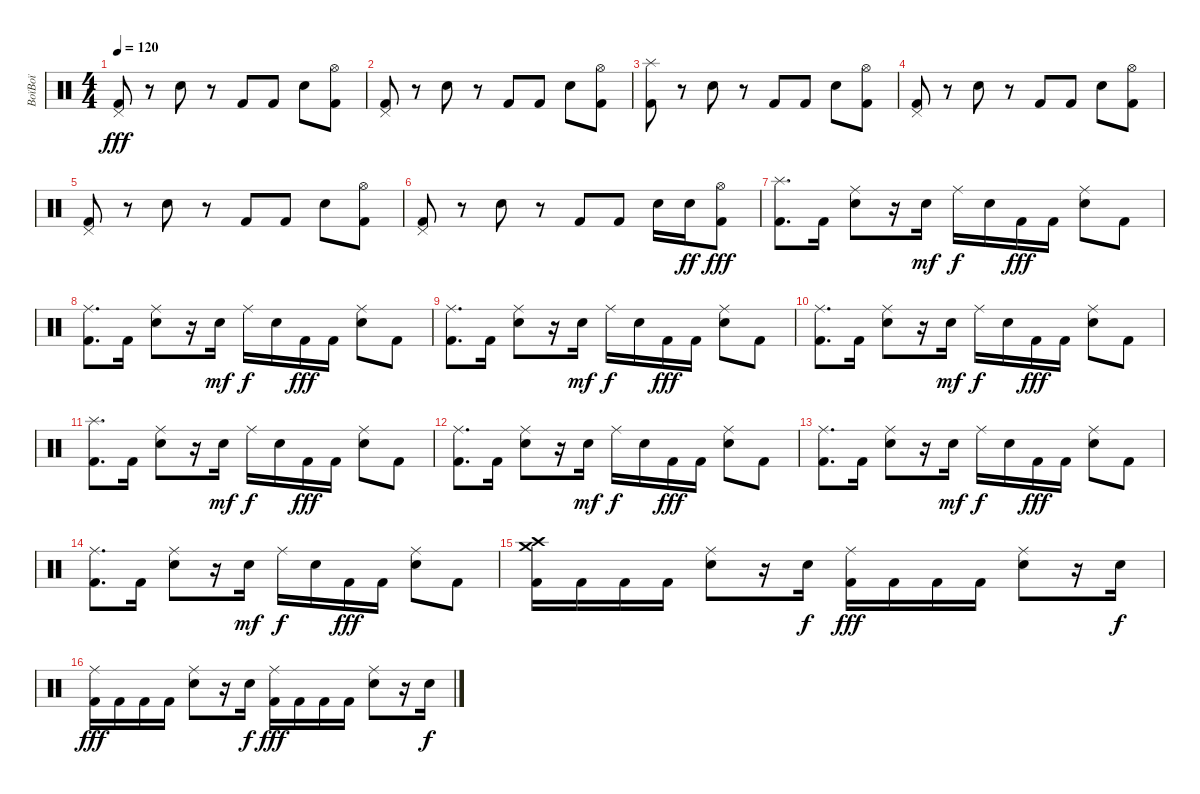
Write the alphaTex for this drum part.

\track ("BoïBoï" "BoïBoï") {instrument percussion}
\staff {score}
\articulation defaults
\ts (4 4)
\tempo 120
\clef neutral
\ks c
("Pedal Hi-Hat (hit)" "Kick (hit) 2").8{dy fff} r.8 "Electric Snare (hit)".8 r.8 "Kick (hit) 2".8 "Kick (hit) 2".8 "Electric Snare (hit)".8 ("Hi-Hat (open)" "Kick (hit) 2").8 |
("Pedal Hi-Hat (hit)" "Kick (hit) 2").8 r.8 "Electric Snare (hit)".8 r.8 "Kick (hit) 2".8 "Kick (hit) 2".8 "Electric Snare (hit)".8 ("Hi-Hat (open)" "Kick (hit) 2").8 |
("Splash (hit)" "Kick (hit) 2").8 r.8 "Electric Snare (hit)".8 r.8 "Kick (hit) 2".8 "Kick (hit) 2".8 "Electric Snare (hit)".8 ("Hi-Hat (open)" "Kick (hit) 2").8 |
("Pedal Hi-Hat (hit)" "Kick (hit) 2").8 r.8 "Electric Snare (hit)".8 r.8 "Kick (hit) 2".8 "Kick (hit) 2".8 "Electric Snare (hit)".8 ("Hi-Hat (open)" "Kick (hit) 2").8 |
("Pedal Hi-Hat (hit)" "Kick (hit) 2").8 r.8 "Electric Snare (hit)".8 r.8 "Kick (hit) 2".8 "Kick (hit) 2".8 "Electric Snare (hit)".8 ("Hi-Hat (open)" "Kick (hit) 2").8 |
("Pedal Hi-Hat (hit)" "Kick (hit) 2").8 r.8 "Electric Snare (hit)".8 r.8 "Kick (hit) 2".8 "Kick (hit) 2".8 "Electric Snare (hit)".16 "Electric Snare (hit)".16{dy ff} ("Hi-Hat (open)" "Kick (hit) 2").8{dy fff} |
("Splash (hit)" "Kick (hit) 2").8{d} "Kick (hit) 2".16 ("Ride (middle)" "Electric Snare (hit)").8 r.16 "Electric Snare (hit)".16{dy mf} "Ride (middle)".16{dy f} "Electric Snare (hit)".16 "Kick (hit) 2".16{dy fff} "Kick (hit) 2".16 ("Ride (middle)" "Electric Snare (hit)").8 "Kick (hit) 2".8 |
("Ride (middle)" "Kick (hit) 2").8{d} "Kick (hit) 2".16 ("Ride (middle)" "Electric Snare (hit)").8 r.16 "Electric Snare (hit)".16{dy mf} "Ride (middle)".16{dy f} "Electric Snare (hit)".16 "Kick (hit) 2".16{dy fff} "Kick (hit) 2".16 ("Ride (middle)" "Electric Snare (hit)").8 "Kick (hit) 2".8 |
("Ride (middle)" "Kick (hit) 2").8{d} "Kick (hit) 2".16 ("Ride (middle)" "Electric Snare (hit)").8 r.16 "Electric Snare (hit)".16{dy mf} "Ride (middle)".16{dy f} "Electric Snare (hit)".16 "Kick (hit) 2".16{dy fff} "Kick (hit) 2".16 ("Ride (middle)" "Electric Snare (hit)").8 "Kick (hit) 2".8 |
("Ride (middle)" "Kick (hit) 2").8{d} "Kick (hit) 2".16 ("Ride (middle)" "Electric Snare (hit)").8 r.16 "Electric Snare (hit)".16{dy mf} "Ride (middle)".16{dy f} "Electric Snare (hit)".16 "Kick (hit) 2".16{dy fff} "Kick (hit) 2".16 ("Ride (middle)" "Electric Snare (hit)").8 "Kick (hit) 2".8 |
("Splash (hit)" "Kick (hit) 2").8{d} "Kick (hit) 2".16 ("Ride (middle)" "Electric Snare (hit)").8 r.16 "Electric Snare (hit)".16{dy mf} "Ride (middle)".16{dy f} "Electric Snare (hit)".16 "Kick (hit) 2".16{dy fff} "Kick (hit) 2".16 ("Ride (middle)" "Electric Snare (hit)").8 "Kick (hit) 2".8 |
("Ride (middle)" "Kick (hit) 2").8{d} "Kick (hit) 2".16 ("Ride (middle)" "Electric Snare (hit)").8 r.16 "Electric Snare (hit)".16{dy mf} "Ride (middle)".16{dy f} "Electric Snare (hit)".16 "Kick (hit) 2".16{dy fff} "Kick (hit) 2".16 ("Ride (middle)" "Electric Snare (hit)").8 "Kick (hit) 2".8 |
("Ride (middle)" "Kick (hit) 2").8{d} "Kick (hit) 2".16 ("Ride (middle)" "Electric Snare (hit)").8 r.16 "Electric Snare (hit)".16{dy mf} "Ride (middle)".16{dy f} "Electric Snare (hit)".16 "Kick (hit) 2".16{dy fff} "Kick (hit) 2".16 ("Ride (middle)" "Electric Snare (hit)").8 "Kick (hit) 2".8 |
("Ride (middle)" "Kick (hit) 2").8{d} "Kick (hit) 2".16 ("Ride (middle)" "Electric Snare (hit)").8 r.16 "Electric Snare (hit)".16{dy mf} "Ride (middle)".16{dy f} "Electric Snare (hit)".16 "Kick (hit) 2".16{dy fff} "Kick (hit) 2".16 ("Ride (middle)" "Electric Snare (hit)").8 "Kick (hit) 2".8 |
("Crash medium (hit)" "Crash high (hit)" "Kick (hit) 2").16 "Kick (hit) 2".16 "Kick (hit) 2".16 "Kick (hit) 2".16 ("Ride (middle)" "Electric Snare (hit)").8 r.16 "Electric Snare (hit)".16{dy f} ("Ride (middle)" "Kick (hit) 2").16{dy fff} "Kick (hit) 2".16 "Kick (hit) 2".16 "Kick (hit) 2".16 ("Ride (middle)" "Electric Snare (hit)").8 r.16 "Electric Snare (hit)".16{dy f} |
("Ride (middle)" "Kick (hit) 2").16{dy fff} "Kick (hit) 2".16 "Kick (hit) 2".16 "Kick (hit) 2".16 ("Ride (middle)" "Electric Snare (hit)").8 r.16 "Electric Snare (hit)".16{dy f} ("Ride (middle)" "Kick (hit) 2").16{dy fff} "Kick (hit) 2".16 "Kick (hit) 2".16 "Kick (hit) 2".16 ("Ride (middle)" "Electric Snare (hit)").8 r.16 "Electric Snare (hit)".16{dy f}
